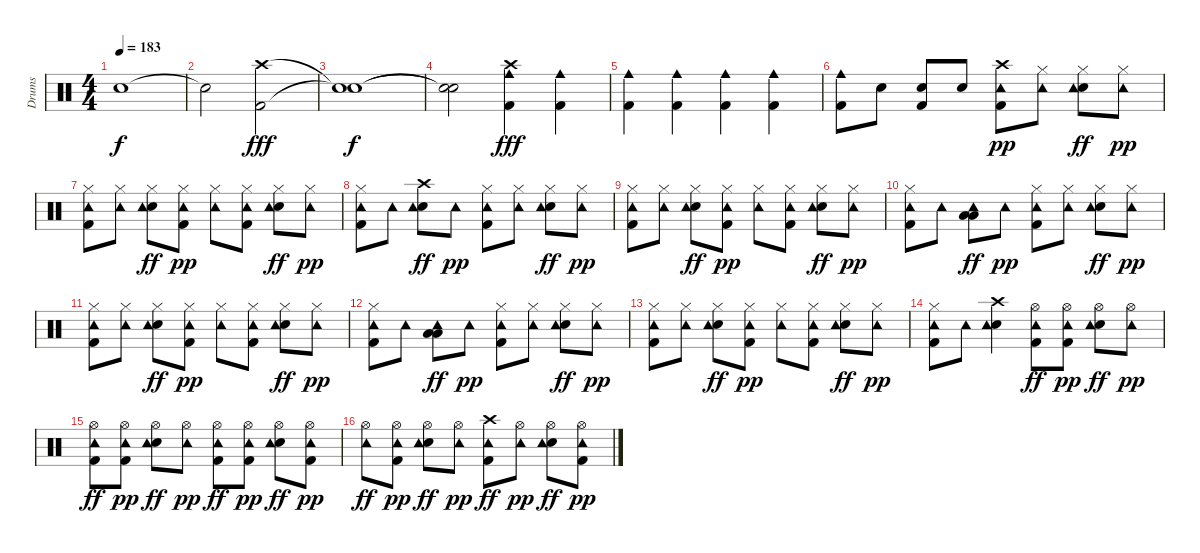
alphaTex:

\track ("Drums" "Drums") {instrument percussion}
\staff {score}
\articulation defaults
\ts (4 4)
\tempo 183
\clef neutral
\ks c "Snare (hit)"{t}.1{dy f}
|
"Snare (hit)"{t}.2 ("Kick (hit) 2" "Crash high (hit)").2{dy fff} |
("Snare (hit)"{t} "Snare (hit)"{t}).1{dy f} |
("Snare (hit)"{t} "Snare (hit)"{t}).2 ("Cowbell medium (hit)" "Kick (hit) 2" "Crash high (hit)").4{dy fff} ("Cowbell medium (hit)" "Kick (hit) 2").4 |
("Cowbell medium (hit)" "Kick (hit) 2").4 ("Cowbell medium (hit)" "Kick (hit) 2").4 ("Cowbell medium (hit)" "Kick (hit) 2").4 ("Cowbell medium (hit)" "Kick (hit) 2").4 |
("Cowbell medium (hit)" "Kick (hit) 2").8 "Snare (hit) 2".8 ("Kick (hit) 2" "Snare (hit) 2").8 "Snare (hit) 2".8 ("Kick (hit) 2" "Crash high (hit)" "Tambourine (hit)").8{dy pp} ("Hi-Hat (closed)" "Tambourine (hit)").8 ("Snare (hit) 2" "Hi-Hat (closed)" "Tambourine (hit)").8{dy ff} ("Hi-Hat (closed)" "Tambourine (hit)").8{dy pp} |
("Kick (hit) 2" "Hi-Hat (closed)" "Tambourine (hit)").8 ("Hi-Hat (closed)" "Tambourine (hit)").8 ("Snare (hit) 2" "Hi-Hat (closed)" "Tambourine (hit)").8{dy ff} ("Kick (hit) 2" "Hi-Hat (closed)" "Tambourine (hit)").8{dy pp} ("Hi-Hat (closed)" "Tambourine (hit)").8 ("Kick (hit) 2" "Hi-Hat (closed)" "Tambourine (hit)").8 ("Snare (hit) 2" "Hi-Hat (closed)" "Tambourine (hit)").8{dy ff} ("Hi-Hat (closed)" "Tambourine (hit)").8{dy pp} |
("Kick (hit) 2" "Hi-Hat (closed)" "Tambourine (hit)").8 "Tambourine (hit)".8 ("Snare (hit) 2" "Crash high (hit)" "Tambourine (hit)").8{dy ff} "Tambourine (hit)".8{dy pp} ("Kick (hit) 2" "Hi-Hat (closed)" "Tambourine (hit)").8 ("Hi-Hat (closed)" "Tambourine (hit)").8 ("Snare (hit) 2" "Hi-Hat (closed)" "Tambourine (hit)").8{dy ff} ("Hi-Hat (closed)" "Tambourine (hit)").8{dy pp} |
("Kick (hit) 2" "Hi-Hat (closed)" "Tambourine (hit)").8 ("Hi-Hat (closed)" "Tambourine (hit)").8 ("Snare (hit) 2" "Hi-Hat (closed)" "Tambourine (hit)").8{dy ff} ("Kick (hit) 2" "Hi-Hat (closed)" "Tambourine (hit)").8{dy pp} ("Hi-Hat (closed)" "Tambourine (hit)").8 ("Kick (hit) 2" "Hi-Hat (closed)" "Tambourine (hit)").8 ("Snare (hit) 2" "Hi-Hat (closed)" "Tambourine (hit)").8{dy ff} ("Hi-Hat (closed)" "Tambourine (hit)").8{dy pp} |
("Kick (hit) 2" "Hi-Hat (closed)" "Tambourine (hit)").8 "Tambourine (hit)".8 ("Low Floor Tom (hit)" "Low Tom (hit)" "Tambourine (hit)").8{dy ff} "Tambourine (hit)".8{dy pp} ("Kick (hit) 2" "Hi-Hat (closed)" "Tambourine (hit)").8 ("Hi-Hat (closed)" "Tambourine (hit)").8 ("Snare (hit) 2" "Hi-Hat (closed)" "Tambourine (hit)").8{dy ff} ("Hi-Hat (closed)" "Tambourine (hit)").8{dy pp} |
("Kick (hit) 2" "Hi-Hat (closed)" "Tambourine (hit)").8 ("Hi-Hat (closed)" "Tambourine (hit)").8 ("Snare (hit) 2" "Hi-Hat (closed)" "Tambourine (hit)").8{dy ff} ("Kick (hit) 2" "Hi-Hat (closed)" "Tambourine (hit)").8{dy pp} ("Hi-Hat (closed)" "Tambourine (hit)").8 ("Kick (hit) 2" "Hi-Hat (closed)" "Tambourine (hit)").8 ("Snare (hit) 2" "Hi-Hat (closed)" "Tambourine (hit)").8{dy ff} ("Hi-Hat (closed)" "Tambourine (hit)").8{dy pp} |
("Kick (hit) 2" "Hi-Hat (closed)" "Tambourine (hit)").8 "Tambourine (hit)".8 ("Low Floor Tom (hit)" "Low Tom (hit)" "Tambourine (hit)").8{dy ff} "Tambourine (hit)".8{dy pp} ("Kick (hit) 2" "Hi-Hat (closed)" "Tambourine (hit)").8 ("Hi-Hat (closed)" "Tambourine (hit)").8 ("Snare (hit) 2" "Hi-Hat (closed)" "Tambourine (hit)").8{dy ff} ("Hi-Hat (closed)" "Tambourine (hit)").8{dy pp} |
("Kick (hit) 2" "Hi-Hat (closed)" "Tambourine (hit)").8 ("Hi-Hat (closed)" "Tambourine (hit)").8 ("Snare (hit) 2" "Hi-Hat (closed)" "Tambourine (hit)").8{dy ff} ("Kick (hit) 2" "Hi-Hat (closed)" "Tambourine (hit)").8{dy pp} ("Hi-Hat (closed)" "Tambourine (hit)").8 ("Kick (hit) 2" "Hi-Hat (closed)" "Tambourine (hit)").8 ("Snare (hit) 2" "Hi-Hat (closed)" "Tambourine (hit)").8{dy ff} ("Hi-Hat (closed)" "Tambourine (hit)").8{dy pp} |
("Kick (hit) 2" "Hi-Hat (closed)" "Tambourine (hit)").8 "Tambourine (hit)".8 ("Snare (hit) 2" "Crash high (hit)" "Tambourine (hit)").4 ("Kick (hit) 2" "Hi-Hat (open)" "Tambourine (hit)").8{dy ff} ("Kick (hit) 2" "Hi-Hat (open)" "Tambourine (hit)").8{dy pp} ("Snare (hit) 2" "Hi-Hat (open)" "Tambourine (hit)").8{dy ff} ("Hi-Hat (open)" "Tambourine (hit)").8{dy pp} |
("Kick (hit) 2" "Hi-Hat (open)" "Tambourine (hit)").8{dy ff} ("Kick (hit) 2" "Hi-Hat (open)" "Tambourine (hit)").8{dy pp} ("Snare (hit) 2" "Hi-Hat (open)" "Tambourine (hit)").8{dy ff} ("Hi-Hat (open)" "Tambourine (hit)").8{dy pp} ("Kick (hit) 2" "Hi-Hat (open)" "Tambourine (hit)").8{dy ff} ("Kick (hit) 2" "Hi-Hat (open)" "Tambourine (hit)").8{dy pp} ("Snare (hit) 2" "Hi-Hat (open)" "Tambourine (hit)").8{dy ff} ("Kick (hit) 2" "Hi-Hat (open)" "Tambourine (hit)").8{dy pp} |
("Hi-Hat (open)" "Tambourine (hit)").8{dy ff} ("Kick (hit) 2" "Hi-Hat (open)" "Tambourine (hit)").8{dy pp} ("Snare (hit) 2" "Hi-Hat (open)" "Tambourine (hit)").8{dy ff} ("Hi-Hat (open)" "Tambourine (hit)").8{dy pp} ("Kick (hit) 2" "Crash high (hit)" "Tambourine (hit)").8{dy ff} ("Hi-Hat (open)" "Tambourine (hit)").8{dy pp} ("Snare (hit) 2" "Hi-Hat (open)" "Tambourine (hit)").8{dy ff} ("Kick (hit) 2" "Hi-Hat (open)" "Tambourine (hit)").8{dy pp}
